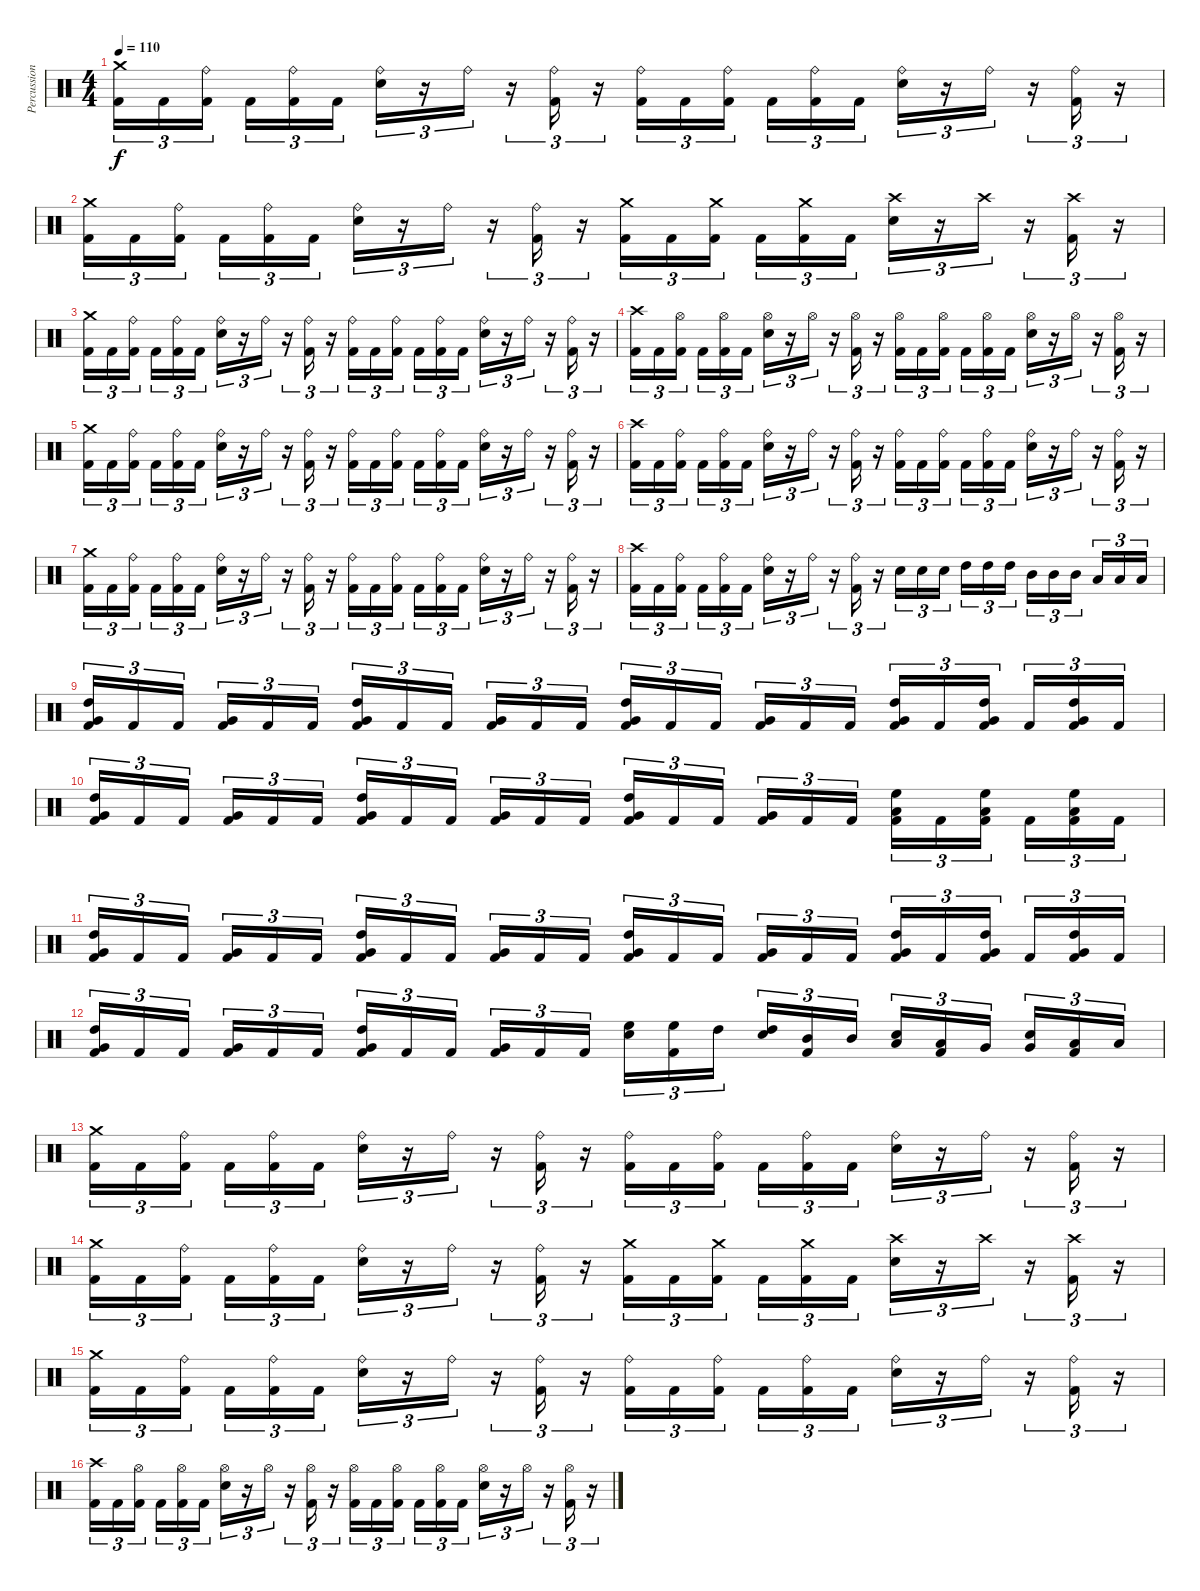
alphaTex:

\track ("Percussion" "Percussion") {instrument percussion}
\staff {score}
\articulation defaults
\ts (4 4)
\tempo 110
\clef neutral
\ks c
("Crash medium (hit)" "Kick (hit) 2").16{tu (3 2) dy f} "Kick (hit) 2".16{tu (3 2)} ("Ride (bell)" "Kick (hit) 2").16{tu (3 2)} "Kick (hit) 2".16{tu (3 2)} ("Ride (bell)" "Kick (hit) 2").16{tu (3 2)} "Kick (hit) 2".16{tu (3 2)} ("Ride (bell)" "Electric Snare (hit)").16{tu (3 2)} r.16{tu (3 2)} "Ride (bell)".16{tu (3 2)} r.16{tu (3 2)} ("Ride (bell)" "Kick (hit) 2").16{tu (3 2)} r.16{tu (3 2)} ("Ride (bell)" "Kick (hit) 2").16{tu (3 2)} "Kick (hit) 2".16{tu (3 2)} ("Ride (bell)" "Kick (hit) 2").16{tu (3 2)} "Kick (hit) 2".16{tu (3 2)} ("Ride (bell)" "Kick (hit) 2").16{tu (3 2)} "Kick (hit) 2".16{tu (3 2)} ("Ride (bell)" "Electric Snare (hit)").16{tu (3 2)} r.16{tu (3 2)} "Ride (bell)".16{tu (3 2)} r.16{tu (3 2)} ("Ride (bell)" "Kick (hit) 2").16{tu (3 2)} r.16{tu (3 2)} |
("Crash medium (hit)" "Kick (hit) 2").16{tu (3 2)} "Kick (hit) 2".16{tu (3 2)} ("Ride (bell)" "Kick (hit) 2").16{tu (3 2)} "Kick (hit) 2".16{tu (3 2)} ("Ride (bell)" "Kick (hit) 2").16{tu (3 2)} "Kick (hit) 2".16{tu (3 2)} ("Ride (bell)" "Electric Snare (hit)").16{tu (3 2)} r.16{tu (3 2)} "Ride (bell)".16{tu (3 2)} r.16{tu (3 2)} ("Ride (bell)" "Kick (hit) 2").16{tu (3 2)} r.16{tu (3 2)} ("Crash medium (hit)" "Kick (hit) 2").16{tu (3 2)} "Kick (hit) 2".16{tu (3 2)} ("Crash medium (hit)" "Kick (hit) 2").16{tu (3 2)} "Kick (hit) 2".16{tu (3 2)} ("Crash medium (hit)" "Kick (hit) 2").16{tu (3 2)} "Kick (hit) 2".16{tu (3 2)} ("Crash high (hit)" "Electric Snare (hit)").16{tu (3 2)} r.16{tu (3 2)} "Crash high (hit)".16{tu (3 2)} r.16{tu (3 2)} ("Crash high (hit)" "Kick (hit) 2").16{tu (3 2)} r.16{tu (3 2)} |
("Crash medium (hit)" "Kick (hit) 2").16{tu (3 2)} "Kick (hit) 2".16{tu (3 2)} ("Ride (bell)" "Kick (hit) 2").16{tu (3 2)} "Kick (hit) 2".16{tu (3 2)} ("Ride (bell)" "Kick (hit) 2").16{tu (3 2)} "Kick (hit) 2".16{tu (3 2)} ("Ride (bell)" "Electric Snare (hit)").16{tu (3 2)} r.16{tu (3 2)} "Ride (bell)".16{tu (3 2)} r.16{tu (3 2)} ("Ride (bell)" "Kick (hit) 2").16{tu (3 2)} r.16{tu (3 2)} ("Ride (bell)" "Kick (hit) 2").16{tu (3 2)} "Kick (hit) 2".16{tu (3 2)} ("Ride (bell)" "Kick (hit) 2").16{tu (3 2)} "Kick (hit) 2".16{tu (3 2)} ("Ride (bell)" "Kick (hit) 2").16{tu (3 2)} "Kick (hit) 2".16{tu (3 2)} ("Ride (bell)" "Electric Snare (hit)").16{tu (3 2)} r.16{tu (3 2)} "Ride (bell)".16{tu (3 2)} r.16{tu (3 2)} ("Ride (bell)" "Kick (hit) 2").16{tu (3 2)} r.16{tu (3 2)} |
("Crash high (hit)" "Kick (hit) 2").16{tu (3 2)} "Kick (hit) 2".16{tu (3 2)} ("Hi-Hat (open)" "Kick (hit) 2").16{tu (3 2)} "Kick (hit) 2".16{tu (3 2)} ("Hi-Hat (open)" "Kick (hit) 2").16{tu (3 2)} "Kick (hit) 2".16{tu (3 2)} ("Hi-Hat (open)" "Electric Snare (hit)").16{tu (3 2)} r.16{tu (3 2)} "Hi-Hat (open)".16{tu (3 2)} r.16{tu (3 2)} ("Hi-Hat (open)" "Kick (hit) 2").16{tu (3 2)} r.16{tu (3 2)} ("Hi-Hat (open)" "Kick (hit) 2").16{tu (3 2)} "Kick (hit) 2".16{tu (3 2)} ("Hi-Hat (open)" "Kick (hit) 2").16{tu (3 2)} "Kick (hit) 2".16{tu (3 2)} ("Hi-Hat (open)" "Kick (hit) 2").16{tu (3 2)} "Kick (hit) 2".16{tu (3 2)} ("Hi-Hat (open)" "Electric Snare (hit)").16{tu (3 2)} r.16{tu (3 2)} "Hi-Hat (open)".16{tu (3 2)} r.16{tu (3 2)} ("Hi-Hat (open)" "Kick (hit) 2").16{tu (3 2)} r.16{tu (3 2)} |
("Crash medium (hit)" "Kick (hit) 2").16{tu (3 2)} "Kick (hit) 2".16{tu (3 2)} ("Ride (bell)" "Kick (hit) 2").16{tu (3 2)} "Kick (hit) 2".16{tu (3 2)} ("Ride (bell)" "Kick (hit) 2").16{tu (3 2)} "Kick (hit) 2".16{tu (3 2)} ("Ride (bell)" "Electric Snare (hit)").16{tu (3 2)} r.16{tu (3 2)} "Ride (bell)".16{tu (3 2)} r.16{tu (3 2)} ("Ride (bell)" "Kick (hit) 2").16{tu (3 2)} r.16{tu (3 2)} ("Ride (bell)" "Kick (hit) 2").16{tu (3 2)} "Kick (hit) 2".16{tu (3 2)} ("Ride (bell)" "Kick (hit) 2").16{tu (3 2)} "Kick (hit) 2".16{tu (3 2)} ("Ride (bell)" "Kick (hit) 2").16{tu (3 2)} "Kick (hit) 2".16{tu (3 2)} ("Ride (bell)" "Electric Snare (hit)").16{tu (3 2)} r.16{tu (3 2)} "Ride (bell)".16{tu (3 2)} r.16{tu (3 2)} ("Ride (bell)" "Kick (hit) 2").16{tu (3 2)} r.16{tu (3 2)} |
("Crash high (hit)" "Kick (hit) 2").16{tu (3 2)} "Kick (hit) 2".16{tu (3 2)} ("Ride (bell)" "Kick (hit) 2").16{tu (3 2)} "Kick (hit) 2".16{tu (3 2)} ("Ride (bell)" "Kick (hit) 2").16{tu (3 2)} "Kick (hit) 2".16{tu (3 2)} ("Ride (bell)" "Electric Snare (hit)").16{tu (3 2)} r.16{tu (3 2)} "Ride (bell)".16{tu (3 2)} r.16{tu (3 2)} ("Ride (bell)" "Kick (hit) 2").16{tu (3 2)} r.16{tu (3 2)} ("Ride (bell)" "Kick (hit) 2").16{tu (3 2)} "Kick (hit) 2".16{tu (3 2)} ("Ride (bell)" "Kick (hit) 2").16{tu (3 2)} "Kick (hit) 2".16{tu (3 2)} ("Ride (bell)" "Kick (hit) 2").16{tu (3 2)} "Kick (hit) 2".16{tu (3 2)} ("Ride (bell)" "Electric Snare (hit)").16{tu (3 2)} r.16{tu (3 2)} "Ride (bell)".16{tu (3 2)} r.16{tu (3 2)} ("Ride (bell)" "Kick (hit) 2").16{tu (3 2)} r.16{tu (3 2)} |
("Crash medium (hit)" "Kick (hit) 2").16{tu (3 2)} "Kick (hit) 2".16{tu (3 2)} ("Ride (bell)" "Kick (hit) 2").16{tu (3 2)} "Kick (hit) 2".16{tu (3 2)} ("Ride (bell)" "Kick (hit) 2").16{tu (3 2)} "Kick (hit) 2".16{tu (3 2)} ("Ride (bell)" "Electric Snare (hit)").16{tu (3 2)} r.16{tu (3 2)} "Ride (bell)".16{tu (3 2)} r.16{tu (3 2)} ("Ride (bell)" "Kick (hit) 2").16{tu (3 2)} r.16{tu (3 2)} ("Ride (bell)" "Kick (hit) 2").16{tu (3 2)} "Kick (hit) 2".16{tu (3 2)} ("Ride (bell)" "Kick (hit) 2").16{tu (3 2)} "Kick (hit) 2".16{tu (3 2)} ("Ride (bell)" "Kick (hit) 2").16{tu (3 2)} "Kick (hit) 2".16{tu (3 2)} ("Ride (bell)" "Electric Snare (hit)").16{tu (3 2)} r.16{tu (3 2)} "Ride (bell)".16{tu (3 2)} r.16{tu (3 2)} ("Ride (bell)" "Kick (hit) 2").16{tu (3 2)} r.16{tu (3 2)} |
("Crash high (hit)" "Kick (hit) 2").16{tu (3 2)} "Kick (hit) 2".16{tu (3 2)} ("Ride (bell)" "Kick (hit) 2").16{tu (3 2)} "Kick (hit) 2".16{tu (3 2)} ("Ride (bell)" "Kick (hit) 2").16{tu (3 2)} "Kick (hit) 2".16{tu (3 2)} ("Ride (bell)" "Electric Snare (hit)").16{tu (3 2)} r.16{tu (3 2)} "Ride (bell)".16{tu (3 2)} r.16{tu (3 2)} ("Ride (bell)" "Kick (hit) 2").16{tu (3 2)} r.16{tu (3 2)} "Electric Snare (hit)".16{tu (3 2)} "Electric Snare (hit)".16{tu (3 2)} "Electric Snare (hit)".16{tu (3 2)} "High Tom (hit)".16{tu (3 2)} "High Tom (hit)".16{tu (3 2)} "High Tom (hit)".16{tu (3 2)} "Mid Tom (hit)".16{tu (3 2)} "Mid Tom (hit)".16{tu (3 2)} "Mid Tom (hit)".16{tu (3 2)} "Low Tom (hit)".16{tu (3 2)} "Low Tom (hit)".16{tu (3 2)} "Low Tom (hit)".16{tu (3 2)} |
("High Tom (hit)" "Very Low Tom (hit)" "Kick (hit) 2").16{tu (3 2)} "Kick (hit) 2".16{tu (3 2)} "Kick (hit) 2".16{tu (3 2)} ("Very Low Tom (hit)" "Kick (hit) 2").16{tu (3 2)} "Kick (hit) 2".16{tu (3 2)} "Kick (hit) 2".16{tu (3 2)} ("High Tom (hit)" "Very Low Tom (hit)" "Kick (hit) 2").16{tu (3 2)} "Kick (hit) 2".16{tu (3 2)} "Kick (hit) 2".16{tu (3 2)} ("Very Low Tom (hit)" "Kick (hit) 2").16{tu (3 2)} "Kick (hit) 2".16{tu (3 2)} "Kick (hit) 2".16{tu (3 2)} ("High Tom (hit)" "Very Low Tom (hit)" "Kick (hit) 2").16{tu (3 2)} "Kick (hit) 2".16{tu (3 2)} "Kick (hit) 2".16{tu (3 2)} ("Very Low Tom (hit)" "Kick (hit) 2").16{tu (3 2)} "Kick (hit) 2".16{tu (3 2)} "Kick (hit) 2".16{tu (3 2)} ("High Tom (hit)" "Very Low Tom (hit)" "Kick (hit) 2").16{tu (3 2)} "Kick (hit) 2".16{tu (3 2)} ("High Tom (hit)" "Very Low Tom (hit)" "Kick (hit) 2").16{tu (3 2)} "Kick (hit) 2".16{tu (3 2)} ("High Tom (hit)" "Very Low Tom (hit)" "Kick (hit) 2").16{tu (3 2)} "Kick (hit) 2".16{tu (3 2)} |
("High Tom (hit)" "Very Low Tom (hit)" "Kick (hit) 2").16{tu (3 2)} "Kick (hit) 2".16{tu (3 2)} "Kick (hit) 2".16{tu (3 2)} ("Very Low Tom (hit)" "Kick (hit) 2").16{tu (3 2)} "Kick (hit) 2".16{tu (3 2)} "Kick (hit) 2".16{tu (3 2)} ("High Tom (hit)" "Very Low Tom (hit)" "Kick (hit) 2").16{tu (3 2)} "Kick (hit) 2".16{tu (3 2)} "Kick (hit) 2".16{tu (3 2)} ("Very Low Tom (hit)" "Kick (hit) 2").16{tu (3 2)} "Kick (hit) 2".16{tu (3 2)} "Kick (hit) 2".16{tu (3 2)} ("High Tom (hit)" "Very Low Tom (hit)" "Kick (hit) 2").16{tu (3 2)} "Kick (hit) 2".16{tu (3 2)} "Kick (hit) 2".16{tu (3 2)} ("Very Low Tom (hit)" "Kick (hit) 2").16{tu (3 2)} "Kick (hit) 2".16{tu (3 2)} "Kick (hit) 2".16{tu (3 2)} ("High Floor Tom (hit)" "Low Tom (hit)" "Kick (hit) 2").16{tu (3 2)} "Kick (hit) 2".16{tu (3 2)} ("High Floor Tom (hit)" "Low Tom (hit)" "Kick (hit) 2").16{tu (3 2)} "Kick (hit) 2".16{tu (3 2)} ("High Floor Tom (hit)" "Low Tom (hit)" "Kick (hit) 2").16{tu (3 2)} "Kick (hit) 2".16{tu (3 2)} |
("High Tom (hit)" "Very Low Tom (hit)" "Kick (hit) 2").16{tu (3 2)} "Kick (hit) 2".16{tu (3 2)} "Kick (hit) 2".16{tu (3 2)} ("Very Low Tom (hit)" "Kick (hit) 2").16{tu (3 2)} "Kick (hit) 2".16{tu (3 2)} "Kick (hit) 2".16{tu (3 2)} ("High Tom (hit)" "Very Low Tom (hit)" "Kick (hit) 2").16{tu (3 2)} "Kick (hit) 2".16{tu (3 2)} "Kick (hit) 2".16{tu (3 2)} ("Very Low Tom (hit)" "Kick (hit) 2").16{tu (3 2)} "Kick (hit) 2".16{tu (3 2)} "Kick (hit) 2".16{tu (3 2)} ("High Tom (hit)" "Very Low Tom (hit)" "Kick (hit) 2").16{tu (3 2)} "Kick (hit) 2".16{tu (3 2)} "Kick (hit) 2".16{tu (3 2)} ("Very Low Tom (hit)" "Kick (hit) 2").16{tu (3 2)} "Kick (hit) 2".16{tu (3 2)} "Kick (hit) 2".16{tu (3 2)} ("High Tom (hit)" "Very Low Tom (hit)" "Kick (hit) 2").16{tu (3 2)} "Kick (hit) 2".16{tu (3 2)} ("High Tom (hit)" "Very Low Tom (hit)" "Kick (hit) 2").16{tu (3 2)} "Kick (hit) 2".16{tu (3 2)} ("High Tom (hit)" "Very Low Tom (hit)" "Kick (hit) 2").16{tu (3 2)} "Kick (hit) 2".16{tu (3 2)} |
("High Tom (hit)" "Very Low Tom (hit)" "Kick (hit) 2").16{tu (3 2)} "Kick (hit) 2".16{tu (3 2)} "Kick (hit) 2".16{tu (3 2)} ("Very Low Tom (hit)" "Kick (hit) 2").16{tu (3 2)} "Kick (hit) 2".16{tu (3 2)} "Kick (hit) 2".16{tu (3 2)} ("High Tom (hit)" "Very Low Tom (hit)" "Kick (hit) 2").16{tu (3 2)} "Kick (hit) 2".16{tu (3 2)} "Kick (hit) 2".16{tu (3 2)} ("Very Low Tom (hit)" "Kick (hit) 2").16{tu (3 2)} "Kick (hit) 2".16{tu (3 2)} "Kick (hit) 2".16{tu (3 2)} ("Electric Snare (hit)" "High Floor Tom (hit)").16{tu (3 2)} ("High Floor Tom (hit)" "Kick (hit) 2").16{tu (3 2)} "High Tom (hit)".16{tu (3 2)} ("Electric Snare (hit)" "High Tom (hit)").16{tu (3 2)} ("Mid Tom (hit)" "Kick (hit) 2").16{tu (3 2)} "Mid Tom (hit)".16{tu (3 2)} ("Electric Snare (hit)" "Low Tom (hit)").16{tu (3 2)} ("Low Tom (hit)" "Kick (hit) 2").16{tu (3 2)} "Very Low Tom (hit)".16{tu (3 2)} ("Electric Snare (hit)" "Very Low Tom (hit)").16{tu (3 2)} ("Low Floor Tom (hit)" "Kick (hit) 2").16{tu (3 2)} "Low Floor Tom (hit)".16{tu (3 2)} |
("Crash medium (hit)" "Kick (hit) 2").16{tu (3 2)} "Kick (hit) 2".16{tu (3 2)} ("Ride (bell)" "Kick (hit) 2").16{tu (3 2)} "Kick (hit) 2".16{tu (3 2)} ("Ride (bell)" "Kick (hit) 2").16{tu (3 2)} "Kick (hit) 2".16{tu (3 2)} ("Ride (bell)" "Electric Snare (hit)").16{tu (3 2)} r.16{tu (3 2)} "Ride (bell)".16{tu (3 2)} r.16{tu (3 2)} ("Ride (bell)" "Kick (hit) 2").16{tu (3 2)} r.16{tu (3 2)} ("Ride (bell)" "Kick (hit) 2").16{tu (3 2)} "Kick (hit) 2".16{tu (3 2)} ("Ride (bell)" "Kick (hit) 2").16{tu (3 2)} "Kick (hit) 2".16{tu (3 2)} ("Ride (bell)" "Kick (hit) 2").16{tu (3 2)} "Kick (hit) 2".16{tu (3 2)} ("Ride (bell)" "Electric Snare (hit)").16{tu (3 2)} r.16{tu (3 2)} "Ride (bell)".16{tu (3 2)} r.16{tu (3 2)} ("Ride (bell)" "Kick (hit) 2").16{tu (3 2)} r.16{tu (3 2)} |
("Crash medium (hit)" "Kick (hit) 2").16{tu (3 2)} "Kick (hit) 2".16{tu (3 2)} ("Ride (bell)" "Kick (hit) 2").16{tu (3 2)} "Kick (hit) 2".16{tu (3 2)} ("Ride (bell)" "Kick (hit) 2").16{tu (3 2)} "Kick (hit) 2".16{tu (3 2)} ("Ride (bell)" "Electric Snare (hit)").16{tu (3 2)} r.16{tu (3 2)} "Ride (bell)".16{tu (3 2)} r.16{tu (3 2)} ("Ride (bell)" "Kick (hit) 2").16{tu (3 2)} r.16{tu (3 2)} ("Crash medium (hit)" "Kick (hit) 2").16{tu (3 2)} "Kick (hit) 2".16{tu (3 2)} ("Crash medium (hit)" "Kick (hit) 2").16{tu (3 2)} "Kick (hit) 2".16{tu (3 2)} ("Crash medium (hit)" "Kick (hit) 2").16{tu (3 2)} "Kick (hit) 2".16{tu (3 2)} ("Crash high (hit)" "Electric Snare (hit)").16{tu (3 2)} r.16{tu (3 2)} "Crash high (hit)".16{tu (3 2)} r.16{tu (3 2)} ("Crash high (hit)" "Kick (hit) 2").16{tu (3 2)} r.16{tu (3 2)} |
("Crash medium (hit)" "Kick (hit) 2").16{tu (3 2)} "Kick (hit) 2".16{tu (3 2)} ("Ride (bell)" "Kick (hit) 2").16{tu (3 2)} "Kick (hit) 2".16{tu (3 2)} ("Ride (bell)" "Kick (hit) 2").16{tu (3 2)} "Kick (hit) 2".16{tu (3 2)} ("Ride (bell)" "Electric Snare (hit)").16{tu (3 2)} r.16{tu (3 2)} "Ride (bell)".16{tu (3 2)} r.16{tu (3 2)} ("Ride (bell)" "Kick (hit) 2").16{tu (3 2)} r.16{tu (3 2)} ("Ride (bell)" "Kick (hit) 2").16{tu (3 2)} "Kick (hit) 2".16{tu (3 2)} ("Ride (bell)" "Kick (hit) 2").16{tu (3 2)} "Kick (hit) 2".16{tu (3 2)} ("Ride (bell)" "Kick (hit) 2").16{tu (3 2)} "Kick (hit) 2".16{tu (3 2)} ("Ride (bell)" "Electric Snare (hit)").16{tu (3 2)} r.16{tu (3 2)} "Ride (bell)".16{tu (3 2)} r.16{tu (3 2)} ("Ride (bell)" "Kick (hit) 2").16{tu (3 2)} r.16{tu (3 2)} |
("Crash high (hit)" "Kick (hit) 2").16{tu (3 2)} "Kick (hit) 2".16{tu (3 2)} ("Hi-Hat (open)" "Kick (hit) 2").16{tu (3 2)} "Kick (hit) 2".16{tu (3 2)} ("Hi-Hat (open)" "Kick (hit) 2").16{tu (3 2)} "Kick (hit) 2".16{tu (3 2)} ("Hi-Hat (open)" "Electric Snare (hit)").16{tu (3 2)} r.16{tu (3 2)} "Hi-Hat (open)".16{tu (3 2)} r.16{tu (3 2)} ("Hi-Hat (open)" "Kick (hit) 2").16{tu (3 2)} r.16{tu (3 2)} ("Hi-Hat (open)" "Kick (hit) 2").16{tu (3 2)} "Kick (hit) 2".16{tu (3 2)} ("Hi-Hat (open)" "Kick (hit) 2").16{tu (3 2)} "Kick (hit) 2".16{tu (3 2)} ("Hi-Hat (open)" "Kick (hit) 2").16{tu (3 2)} "Kick (hit) 2".16{tu (3 2)} ("Hi-Hat (open)" "Electric Snare (hit)").16{tu (3 2)} r.16{tu (3 2)} "Hi-Hat (open)".16{tu (3 2)} r.16{tu (3 2)} ("Hi-Hat (open)" "Kick (hit) 2").16{tu (3 2)} r.16{tu (3 2)}
